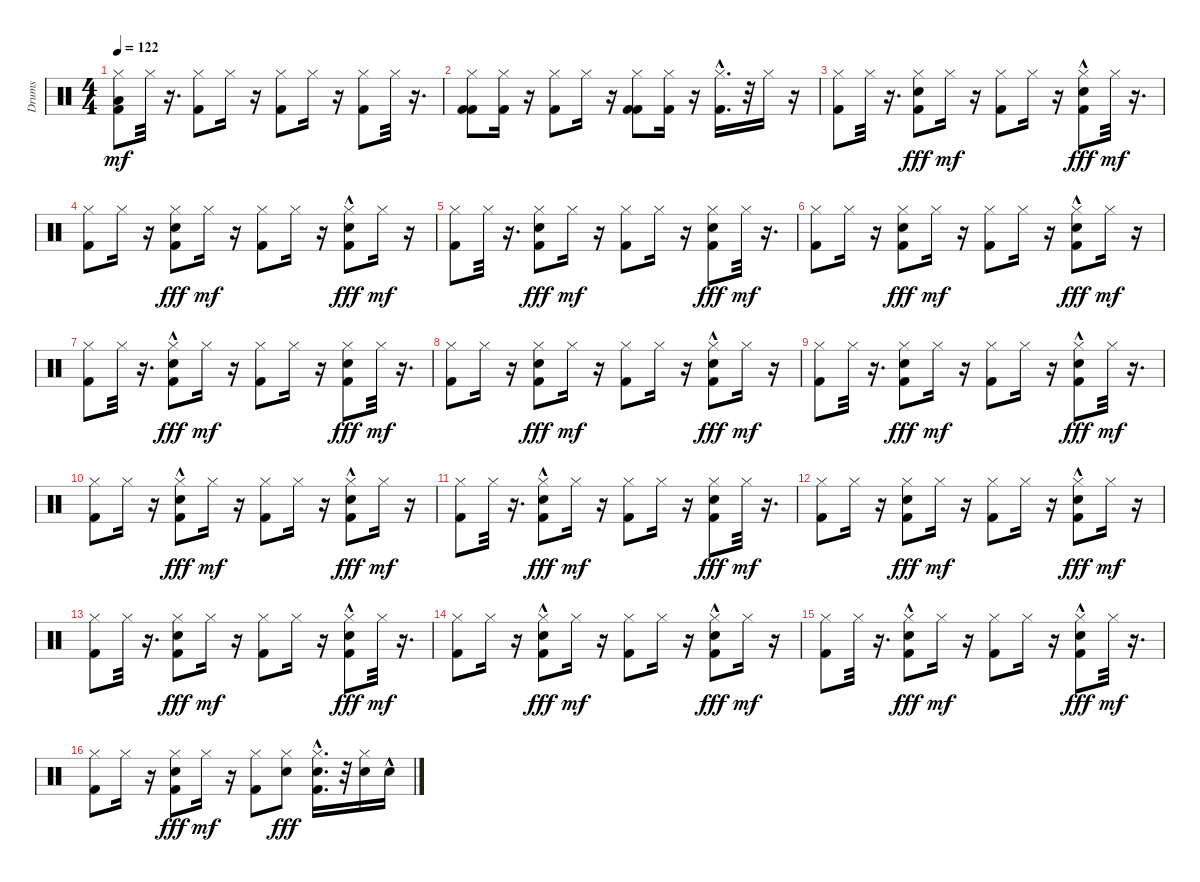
\track ("Drums" "Drums") {instrument percussion}
\staff {score}
\articulation defaults
\ts (4 4)
\tempo 122
\clef neutral
\ks c
("Low Tom (hit)" "Hi-Hat (closed)" "Kick (hit) 2").8{dy mf} "Hi-Hat (closed)".32 r.16{d} ("Hi-Hat (closed)" "Kick (hit) 2").8 "Hi-Hat (closed)".16 r.16 ("Hi-Hat (closed)" "Kick (hit) 2").8 "Hi-Hat (closed)".16 r.16 ("Hi-Hat (closed)" "Kick (hit) 2").8 "Hi-Hat (closed)".32 r.16{d} |
("Hi-Hat (closed)" "Kick (hit) 2" "Kick (hit) 2").8 ("Hi-Hat (closed)" "Kick (hit) 2").16 r.16 ("Hi-Hat (closed)" "Kick (hit) 2").8 "Hi-Hat (closed)".16 r.16 ("Hi-Hat (closed)" "Kick (hit) 2" "Kick (hit) 2").8 ("Hi-Hat (closed)" "Kick (hit) 2").16 r.16 ("Hi-Hat (closed)" "Kick (hit) 2"{hac}).16{d} r.32 "Hi-Hat (closed)".16 r.16 |
("Hi-Hat (closed)" "Kick (hit) 2").8 "Hi-Hat (closed)".32 r.16{d} ("Hi-Hat (closed)" "Electric Snare (hit)" "Kick (hit) 2").8{dy fff} "Hi-Hat (closed)".16{dy mf} r.16 ("Hi-Hat (closed)" "Kick (hit) 2").8 "Hi-Hat (closed)".16 r.16 ("Hi-Hat (closed)" "Electric Snare (hit)"{hac} "Kick (hit) 2").8{dy fff} "Hi-Hat (closed)".32{dy mf} r.16{d} |
("Hi-Hat (closed)" "Kick (hit) 2").8 "Hi-Hat (closed)".16 r.16 ("Hi-Hat (closed)" "Electric Snare (hit)" "Kick (hit) 2").8{dy fff} "Hi-Hat (closed)".16{dy mf} r.16 ("Hi-Hat (closed)" "Kick (hit) 2").8 "Hi-Hat (closed)".16 r.16 ("Hi-Hat (closed)" "Electric Snare (hit)"{hac} "Kick (hit) 2"{hac}).8{dy fff} "Hi-Hat (closed)".16{dy mf} r.16 |
("Hi-Hat (closed)" "Kick (hit) 2").8 "Hi-Hat (closed)".32 r.16{d} ("Hi-Hat (closed)" "Electric Snare (hit)" "Kick (hit) 2").8{dy fff} "Hi-Hat (closed)".16{dy mf} r.16 ("Hi-Hat (closed)" "Kick (hit) 2").8 "Hi-Hat (closed)".16 r.16 ("Hi-Hat (closed)" "Electric Snare (hit)" "Kick (hit) 2").8{dy fff} "Hi-Hat (closed)".32{dy mf} r.16{d} |
("Hi-Hat (closed)" "Kick (hit) 2").8 "Hi-Hat (closed)".16 r.16 ("Hi-Hat (closed)" "Electric Snare (hit)" "Kick (hit) 2").8{dy fff} "Hi-Hat (closed)".16{dy mf} r.16 ("Hi-Hat (closed)" "Kick (hit) 2").8 "Hi-Hat (closed)".16 r.16 ("Hi-Hat (closed)" "Electric Snare (hit)" "Kick (hit) 2"{hac}).8{dy fff} "Hi-Hat (closed)".16{dy mf} r.16 |
("Hi-Hat (closed)" "Kick (hit) 2").8 "Hi-Hat (closed)".32 r.16{d} ("Hi-Hat (closed)" "Electric Snare (hit)"{hac} "Kick (hit) 2").8{dy fff} "Hi-Hat (closed)".16{dy mf} r.16 ("Hi-Hat (closed)" "Kick (hit) 2").8 "Hi-Hat (closed)".16 r.16 ("Hi-Hat (closed)" "Electric Snare (hit)" "Kick (hit) 2").8{dy fff} "Hi-Hat (closed)".32{dy mf} r.16{d} |
("Hi-Hat (closed)" "Kick (hit) 2").8 "Hi-Hat (closed)".16 r.16 ("Hi-Hat (closed)" "Electric Snare (hit)" "Kick (hit) 2").8{dy fff} "Hi-Hat (closed)".16{dy mf} r.16 ("Hi-Hat (closed)" "Kick (hit) 2").8 "Hi-Hat (closed)".16 r.16 ("Hi-Hat (closed)" "Electric Snare (hit)" "Kick (hit) 2"{hac}).8{dy fff} "Hi-Hat (closed)".16{dy mf} r.16 |
("Hi-Hat (closed)" "Kick (hit) 2").8 "Hi-Hat (closed)".32 r.16{d} ("Hi-Hat (closed)" "Electric Snare (hit)" "Kick (hit) 2").8{dy fff} "Hi-Hat (closed)".16{dy mf} r.16 ("Hi-Hat (closed)" "Kick (hit) 2").8 "Hi-Hat (closed)".16 r.16 ("Hi-Hat (closed)" "Electric Snare (hit)"{hac} "Kick (hit) 2").8{dy fff} "Hi-Hat (closed)".32{dy mf} r.16{d} |
("Hi-Hat (closed)" "Kick (hit) 2").8 "Hi-Hat (closed)".16 r.16 ("Hi-Hat (closed)" "Electric Snare (hit)"{hac} "Kick (hit) 2").8{dy fff} "Hi-Hat (closed)".16{dy mf} r.16 ("Hi-Hat (closed)" "Kick (hit) 2").8 "Hi-Hat (closed)".16 r.16 ("Hi-Hat (closed)" "Electric Snare (hit)" "Kick (hit) 2"{hac}).8{dy fff} "Hi-Hat (closed)".16{dy mf} r.16 |
("Hi-Hat (closed)" "Kick (hit) 2").8 "Hi-Hat (closed)".32 r.16{d} ("Hi-Hat (closed)" "Electric Snare (hit)"{hac} "Kick (hit) 2").8{dy fff} "Hi-Hat (closed)".16{dy mf} r.16 ("Hi-Hat (closed)" "Kick (hit) 2").8 "Hi-Hat (closed)".16 r.16 ("Hi-Hat (closed)" "Electric Snare (hit)" "Kick (hit) 2").8{dy fff} "Hi-Hat (closed)".32{dy mf} r.16{d} |
("Hi-Hat (closed)" "Kick (hit) 2").8 "Hi-Hat (closed)".16 r.16 ("Hi-Hat (closed)" "Electric Snare (hit)" "Kick (hit) 2").8{dy fff} "Hi-Hat (closed)".16{dy mf} r.16 ("Hi-Hat (closed)" "Kick (hit) 2").8 "Hi-Hat (closed)".16 r.16 ("Hi-Hat (closed)" "Electric Snare (hit)" "Kick (hit) 2"{hac}).8{dy fff} "Hi-Hat (closed)".16{dy mf} r.16 |
("Hi-Hat (closed)" "Kick (hit) 2").8 "Hi-Hat (closed)".32 r.16{d} ("Hi-Hat (closed)" "Electric Snare (hit)" "Kick (hit) 2").8{dy fff} "Hi-Hat (closed)".16{dy mf} r.16 ("Hi-Hat (closed)" "Kick (hit) 2").8 "Hi-Hat (closed)".16 r.16 ("Hi-Hat (closed)" "Electric Snare (hit)"{hac} "Kick (hit) 2").8{dy fff} "Hi-Hat (closed)".32{dy mf} r.16{d} |
("Hi-Hat (closed)" "Kick (hit) 2").8 "Hi-Hat (closed)".16 r.16 ("Hi-Hat (closed)" "Electric Snare (hit)"{hac} "Kick (hit) 2").8{dy fff} "Hi-Hat (closed)".16{dy mf} r.16 ("Hi-Hat (closed)" "Kick (hit) 2").8 "Hi-Hat (closed)".16 r.16 ("Hi-Hat (closed)" "Electric Snare (hit)"{hac} "Kick (hit) 2"{hac}).8{dy fff} "Hi-Hat (closed)".16{dy mf} r.16 |
("Hi-Hat (closed)" "Kick (hit) 2").8 "Hi-Hat (closed)".32 r.16{d} ("Hi-Hat (closed)" "Electric Snare (hit)"{hac} "Kick (hit) 2").8{dy fff} "Hi-Hat (closed)".16{dy mf} r.16 ("Hi-Hat (closed)" "Kick (hit) 2").8 "Hi-Hat (closed)".16 r.16 ("Hi-Hat (closed)" "Electric Snare (hit)"{hac} "Kick (hit) 2").8{dy fff} "Hi-Hat (closed)".32{dy mf} r.16{d} |
("Hi-Hat (closed)" "Kick (hit) 2").8 "Hi-Hat (closed)".16 r.16 ("Hi-Hat (closed)" "Electric Snare (hit)" "Kick (hit) 2").8{dy fff} "Hi-Hat (closed)".16{dy mf} r.16 ("Hi-Hat (closed)" "Kick (hit) 2").8 ("Hi-Hat (closed)" "Electric Snare (hit)").8{dy fff} ("Hi-Hat (closed)" "Electric Snare (hit)"{hac} "Kick (hit) 2"{hac}).16{d} r.32 ("Hi-Hat (closed)" "Electric Snare (hit)").16 "Electric Snare (hit)"{hac}.16
